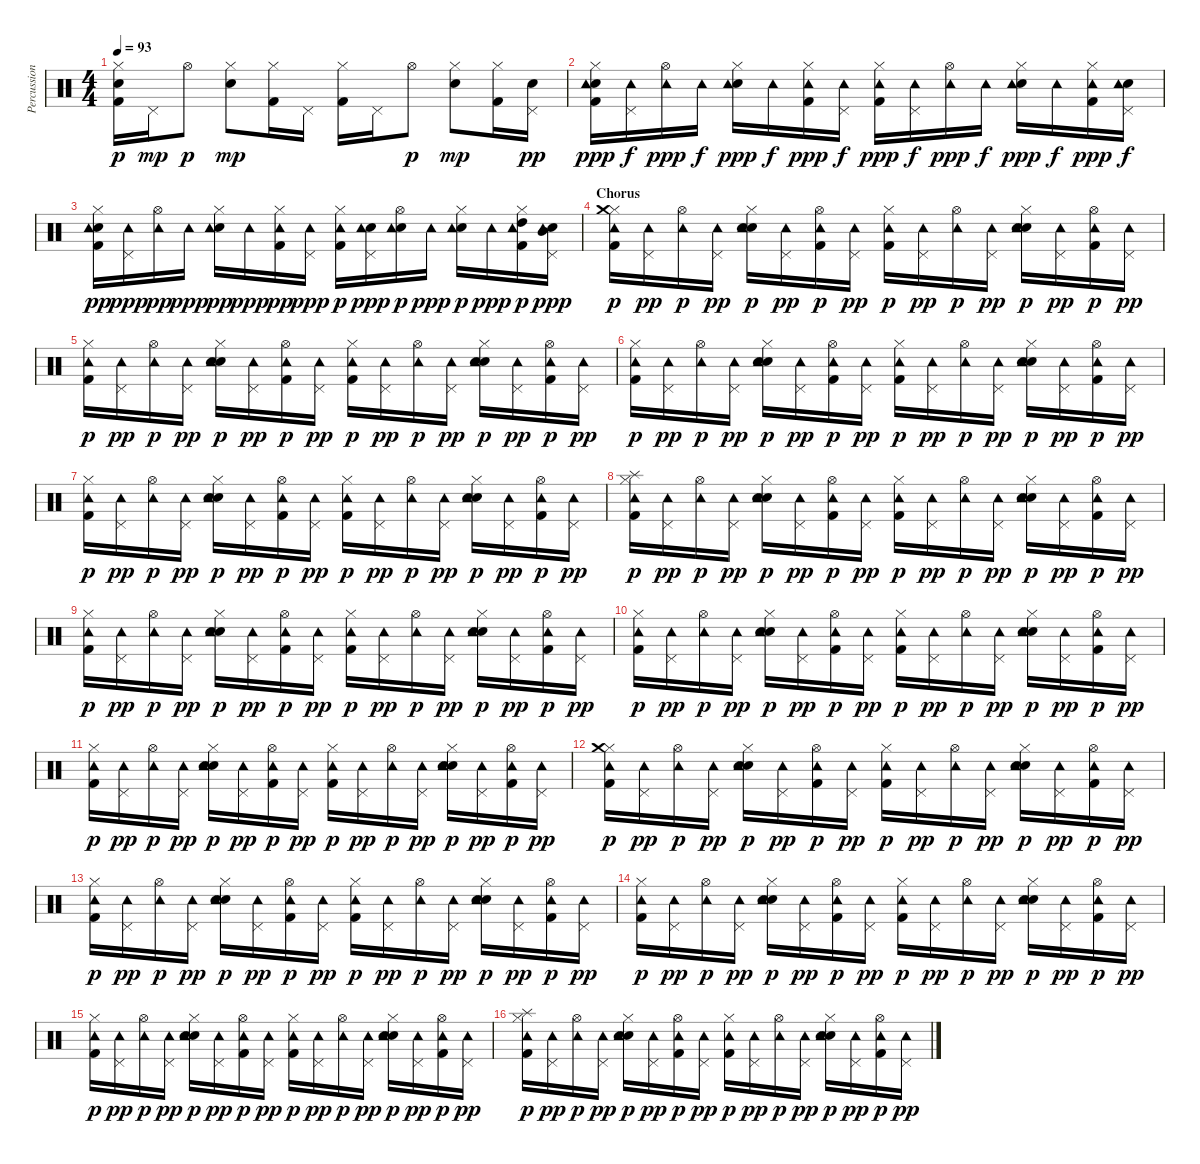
\track ("Percussions" "Percussion") {instrument percussion}
\staff {score}
\articulation defaults
\ts (4 4)
\tempo 93
\clef neutral
\ks c
("Hi-Hat (closed)" "Hand Clap (hit)" "Kick (hit) 2").16{dy p} "Pedal Hi-Hat (hit)".16{dy mp} "Hi-Hat (open)".8{dy p} ("Hi-Hat (closed)" "Electric Snare (hit)").8{dy mp} ("Hi-Hat (closed)" "Kick (hit) 2").16 "Pedal Hi-Hat (hit)".16 ("Hi-Hat (closed)" "Kick (hit) 2").16 "Pedal Hi-Hat (hit)".16 "Hi-Hat (open)".8{dy p} ("Hi-Hat (closed)" "Electric Snare (hit)").8{dy mp} ("Hi-Hat (closed)" "Kick (hit) 2").16 ("Pedal Hi-Hat (hit)" "Hand Clap (hit)").16{dy pp} |
("Hi-Hat (closed)" "Hand Clap (hit)" "Kick (hit) 2" "Tambourine (hit)").16{dy ppp} ("Pedal Hi-Hat (hit)" "Tambourine (hit)").16{dy f} ("Hi-Hat (open)" "Tambourine (hit)").16{dy ppp} "Tambourine (hit)".16{dy f} ("Hi-Hat (closed)" "Electric Snare (hit)" "Tambourine (hit)").16{dy ppp} "Tambourine (hit)".16{dy f} ("Hi-Hat (closed)" "Kick (hit) 2" "Tambourine (hit)").16{dy ppp} ("Pedal Hi-Hat (hit)" "Tambourine (hit)").16{dy f} ("Hi-Hat (closed)" "Kick (hit) 2" "Tambourine (hit)").16{dy ppp} ("Pedal Hi-Hat (hit)" "Tambourine (hit)").16{dy f} ("Hi-Hat (open)" "Tambourine (hit)").16{dy ppp} "Tambourine (hit)".16{dy f} ("Hi-Hat (closed)" "Electric Snare (hit)" "Tambourine (hit)").16{dy ppp} "Tambourine (hit)".16{dy f} ("Hi-Hat (closed)" "Kick (hit) 2" "Tambourine (hit)").16{dy ppp} ("Pedal Hi-Hat (hit)" "Hand Clap (hit)" "Tambourine (hit)").16{dy f} |
("Hi-Hat (closed)" "Hand Clap (hit)" "Kick (hit) 2" "Tambourine (hit)").16{dy pp} ("Pedal Hi-Hat (hit)" "Tambourine (hit)").16{dy ppp} ("Hi-Hat (open)" "Tambourine (hit)").16{dy pp} "Tambourine (hit)".16{dy ppp} ("Hi-Hat (closed)" "Electric Snare (hit)" "Tambourine (hit)").16{dy pp} "Tambourine (hit)".16{dy ppp} ("Hi-Hat (closed)" "Kick (hit) 2" "Tambourine (hit)").16{dy pp} ("Pedal Hi-Hat (hit)" "Tambourine (hit)").16{dy ppp} ("Hi-Hat (closed)" "Kick (hit) 2" "Tambourine (hit)").16{dy p} ("Pedal Hi-Hat (hit)" "Electric Snare (hit)" "Tambourine (hit)").16{dy ppp} ("Hi-Hat (open)" "Electric Snare (hit)" "Tambourine (hit)").16{dy p} "Tambourine (hit)".16{dy ppp} ("Hi-Hat (closed)" "Electric Snare (hit)" "Tambourine (hit)").16{dy p} "Tambourine (hit)".16{dy ppp} ("Hi-Hat (closed)" "High Tom (hit)" "Kick (hit) 2" "Tambourine (hit)").16{dy p} ("Pedal Hi-Hat (hit)" "Mid Tom (hit)" "Hand Clap (hit)" "Tambourine (hit)").16{dy ppp} |
\section ("" "Chorus")
("Hi-Hat (closed)" "Crash medium (hit)" "Kick (hit) 2" "Tambourine (hit)").16{dy p} ("Pedal Hi-Hat (hit)" "Tambourine (hit)").16{dy pp} ("Hi-Hat (open)" "Tambourine (hit)").16{dy p} ("Pedal Hi-Hat (hit)" "Tambourine (hit)").16{dy pp} ("Hi-Hat (closed)" "Electric Snare (hit)" "Hand Clap (hit)" "Tambourine (hit)").16{dy p} ("Pedal Hi-Hat (hit)" "Tambourine (hit)").16{dy pp} ("Hi-Hat (open)" "Kick (hit) 2" "Tambourine (hit)").16{dy p} ("Pedal Hi-Hat (hit)" "Tambourine (hit)").16{dy pp} ("Hi-Hat (closed)" "Kick (hit) 2" "Tambourine (hit)").16{dy p} ("Pedal Hi-Hat (hit)" "Tambourine (hit)").16{dy pp} ("Hi-Hat (open)" "Tambourine (hit)").16{dy p} ("Pedal Hi-Hat (hit)" "Tambourine (hit)").16{dy pp} ("Hi-Hat (closed)" "Electric Snare (hit)" "Hand Clap (hit)" "Tambourine (hit)").16{dy p} ("Pedal Hi-Hat (hit)" "Tambourine (hit)").16{dy pp} ("Hi-Hat (open)" "Kick (hit) 2" "Tambourine (hit)").16{dy p} ("Pedal Hi-Hat (hit)" "Tambourine (hit)").16{dy pp} |
("Hi-Hat (closed)" "Kick (hit) 2" "Tambourine (hit)").16{dy p} ("Pedal Hi-Hat (hit)" "Tambourine (hit)").16{dy pp} ("Hi-Hat (open)" "Tambourine (hit)").16{dy p} ("Pedal Hi-Hat (hit)" "Tambourine (hit)").16{dy pp} ("Hi-Hat (closed)" "Electric Snare (hit)" "Hand Clap (hit)" "Tambourine (hit)").16{dy p} ("Pedal Hi-Hat (hit)" "Tambourine (hit)").16{dy pp} ("Hi-Hat (open)" "Kick (hit) 2" "Tambourine (hit)").16{dy p} ("Pedal Hi-Hat (hit)" "Tambourine (hit)").16{dy pp} ("Hi-Hat (closed)" "Kick (hit) 2" "Tambourine (hit)").16{dy p} ("Pedal Hi-Hat (hit)" "Tambourine (hit)").16{dy pp} ("Hi-Hat (open)" "Tambourine (hit)").16{dy p} ("Pedal Hi-Hat (hit)" "Tambourine (hit)").16{dy pp} ("Hi-Hat (closed)" "Electric Snare (hit)" "Hand Clap (hit)" "Tambourine (hit)").16{dy p} ("Pedal Hi-Hat (hit)" "Tambourine (hit)").16{dy pp} ("Hi-Hat (open)" "Kick (hit) 2" "Tambourine (hit)").16{dy p} ("Pedal Hi-Hat (hit)" "Tambourine (hit)").16{dy pp} |
("Hi-Hat (closed)" "Kick (hit) 2" "Tambourine (hit)").16{dy p} ("Pedal Hi-Hat (hit)" "Tambourine (hit)").16{dy pp} ("Hi-Hat (open)" "Tambourine (hit)").16{dy p} ("Pedal Hi-Hat (hit)" "Tambourine (hit)").16{dy pp} ("Hi-Hat (closed)" "Electric Snare (hit)" "Hand Clap (hit)" "Tambourine (hit)").16{dy p} ("Pedal Hi-Hat (hit)" "Tambourine (hit)").16{dy pp} ("Hi-Hat (open)" "Kick (hit) 2" "Tambourine (hit)").16{dy p} ("Pedal Hi-Hat (hit)" "Tambourine (hit)").16{dy pp} ("Hi-Hat (closed)" "Kick (hit) 2" "Tambourine (hit)").16{dy p} ("Pedal Hi-Hat (hit)" "Tambourine (hit)").16{dy pp} ("Hi-Hat (open)" "Tambourine (hit)").16{dy p} ("Pedal Hi-Hat (hit)" "Tambourine (hit)").16{dy pp} ("Hi-Hat (closed)" "Electric Snare (hit)" "Hand Clap (hit)" "Tambourine (hit)").16{dy p} ("Pedal Hi-Hat (hit)" "Tambourine (hit)").16{dy pp} ("Hi-Hat (open)" "Kick (hit) 2" "Tambourine (hit)").16{dy p} ("Pedal Hi-Hat (hit)" "Tambourine (hit)").16{dy pp} |
("Hi-Hat (closed)" "Kick (hit) 2" "Tambourine (hit)").16{dy p} ("Pedal Hi-Hat (hit)" "Tambourine (hit)").16{dy pp} ("Hi-Hat (open)" "Tambourine (hit)").16{dy p} ("Pedal Hi-Hat (hit)" "Tambourine (hit)").16{dy pp} ("Hi-Hat (closed)" "Electric Snare (hit)" "Hand Clap (hit)" "Tambourine (hit)").16{dy p} ("Pedal Hi-Hat (hit)" "Tambourine (hit)").16{dy pp} ("Hi-Hat (open)" "Kick (hit) 2" "Tambourine (hit)").16{dy p} ("Pedal Hi-Hat (hit)" "Tambourine (hit)").16{dy pp} ("Hi-Hat (closed)" "Kick (hit) 2" "Tambourine (hit)").16{dy p} ("Pedal Hi-Hat (hit)" "Tambourine (hit)").16{dy pp} ("Hi-Hat (open)" "Tambourine (hit)").16{dy p} ("Pedal Hi-Hat (hit)" "Tambourine (hit)").16{dy pp} ("Hi-Hat (closed)" "Electric Snare (hit)" "Hand Clap (hit)" "Tambourine (hit)").16{dy p} ("Pedal Hi-Hat (hit)" "Tambourine (hit)").16{dy pp} ("Hi-Hat (open)" "Kick (hit) 2" "Tambourine (hit)").16{dy p} ("Pedal Hi-Hat (hit)" "Tambourine (hit)").16{dy pp} |
("Hi-Hat (closed)" "Splash (hit)" "Kick (hit) 2" "Tambourine (hit)").16{dy p} ("Pedal Hi-Hat (hit)" "Tambourine (hit)").16{dy pp} ("Hi-Hat (open)" "Tambourine (hit)").16{dy p} ("Pedal Hi-Hat (hit)" "Tambourine (hit)").16{dy pp} ("Hi-Hat (closed)" "Electric Snare (hit)" "Hand Clap (hit)" "Tambourine (hit)").16{dy p} ("Pedal Hi-Hat (hit)" "Tambourine (hit)").16{dy pp} ("Hi-Hat (open)" "Kick (hit) 2" "Tambourine (hit)").16{dy p} ("Pedal Hi-Hat (hit)" "Tambourine (hit)").16{dy pp} ("Hi-Hat (closed)" "Kick (hit) 2" "Tambourine (hit)").16{dy p} ("Pedal Hi-Hat (hit)" "Tambourine (hit)").16{dy pp} ("Hi-Hat (open)" "Tambourine (hit)").16{dy p} ("Pedal Hi-Hat (hit)" "Tambourine (hit)").16{dy pp} ("Hi-Hat (closed)" "Electric Snare (hit)" "Hand Clap (hit)" "Tambourine (hit)").16{dy p} ("Pedal Hi-Hat (hit)" "Tambourine (hit)").16{dy pp} ("Hi-Hat (open)" "Kick (hit) 2" "Tambourine (hit)").16{dy p} ("Pedal Hi-Hat (hit)" "Tambourine (hit)").16{dy pp} |
("Hi-Hat (closed)" "Kick (hit) 2" "Tambourine (hit)").16{dy p} ("Pedal Hi-Hat (hit)" "Tambourine (hit)").16{dy pp} ("Hi-Hat (open)" "Tambourine (hit)").16{dy p} ("Pedal Hi-Hat (hit)" "Tambourine (hit)").16{dy pp} ("Hi-Hat (closed)" "Electric Snare (hit)" "Hand Clap (hit)" "Tambourine (hit)").16{dy p} ("Pedal Hi-Hat (hit)" "Tambourine (hit)").16{dy pp} ("Hi-Hat (open)" "Kick (hit) 2" "Tambourine (hit)").16{dy p} ("Pedal Hi-Hat (hit)" "Tambourine (hit)").16{dy pp} ("Hi-Hat (closed)" "Kick (hit) 2" "Tambourine (hit)").16{dy p} ("Pedal Hi-Hat (hit)" "Tambourine (hit)").16{dy pp} ("Hi-Hat (open)" "Tambourine (hit)").16{dy p} ("Pedal Hi-Hat (hit)" "Tambourine (hit)").16{dy pp} ("Hi-Hat (closed)" "Electric Snare (hit)" "Hand Clap (hit)" "Tambourine (hit)").16{dy p} ("Pedal Hi-Hat (hit)" "Tambourine (hit)").16{dy pp} ("Hi-Hat (open)" "Kick (hit) 2" "Tambourine (hit)").16{dy p} ("Pedal Hi-Hat (hit)" "Tambourine (hit)").16{dy pp} |
("Hi-Hat (closed)" "Kick (hit) 2" "Tambourine (hit)").16{dy p} ("Pedal Hi-Hat (hit)" "Tambourine (hit)").16{dy pp} ("Hi-Hat (open)" "Tambourine (hit)").16{dy p} ("Pedal Hi-Hat (hit)" "Tambourine (hit)").16{dy pp} ("Hi-Hat (closed)" "Electric Snare (hit)" "Hand Clap (hit)" "Tambourine (hit)").16{dy p} ("Pedal Hi-Hat (hit)" "Tambourine (hit)").16{dy pp} ("Hi-Hat (open)" "Kick (hit) 2" "Tambourine (hit)").16{dy p} ("Pedal Hi-Hat (hit)" "Tambourine (hit)").16{dy pp} ("Hi-Hat (closed)" "Kick (hit) 2" "Tambourine (hit)").16{dy p} ("Pedal Hi-Hat (hit)" "Tambourine (hit)").16{dy pp} ("Hi-Hat (open)" "Tambourine (hit)").16{dy p} ("Pedal Hi-Hat (hit)" "Tambourine (hit)").16{dy pp} ("Hi-Hat (closed)" "Electric Snare (hit)" "Hand Clap (hit)" "Tambourine (hit)").16{dy p} ("Pedal Hi-Hat (hit)" "Tambourine (hit)").16{dy pp} ("Hi-Hat (open)" "Kick (hit) 2" "Tambourine (hit)").16{dy p} ("Pedal Hi-Hat (hit)" "Tambourine (hit)").16{dy pp} |
("Hi-Hat (closed)" "Kick (hit) 2" "Tambourine (hit)").16{dy p} ("Pedal Hi-Hat (hit)" "Tambourine (hit)").16{dy pp} ("Hi-Hat (open)" "Tambourine (hit)").16{dy p} ("Pedal Hi-Hat (hit)" "Tambourine (hit)").16{dy pp} ("Hi-Hat (closed)" "Electric Snare (hit)" "Hand Clap (hit)" "Tambourine (hit)").16{dy p} ("Pedal Hi-Hat (hit)" "Tambourine (hit)").16{dy pp} ("Hi-Hat (open)" "Kick (hit) 2" "Tambourine (hit)").16{dy p} ("Pedal Hi-Hat (hit)" "Tambourine (hit)").16{dy pp} ("Hi-Hat (closed)" "Kick (hit) 2" "Tambourine (hit)").16{dy p} ("Pedal Hi-Hat (hit)" "Tambourine (hit)").16{dy pp} ("Hi-Hat (open)" "Tambourine (hit)").16{dy p} ("Pedal Hi-Hat (hit)" "Tambourine (hit)").16{dy pp} ("Hi-Hat (closed)" "Electric Snare (hit)" "Hand Clap (hit)" "Tambourine (hit)").16{dy p} ("Pedal Hi-Hat (hit)" "Tambourine (hit)").16{dy pp} ("Hi-Hat (open)" "Kick (hit) 2" "Tambourine (hit)").16{dy p} ("Pedal Hi-Hat (hit)" "Tambourine (hit)").16{dy pp} |
("Hi-Hat (closed)" "Crash medium (hit)" "Kick (hit) 2" "Tambourine (hit)").16{dy p} ("Pedal Hi-Hat (hit)" "Tambourine (hit)").16{dy pp} ("Hi-Hat (open)" "Tambourine (hit)").16{dy p} ("Pedal Hi-Hat (hit)" "Tambourine (hit)").16{dy pp} ("Hi-Hat (closed)" "Electric Snare (hit)" "Hand Clap (hit)" "Tambourine (hit)").16{dy p} ("Pedal Hi-Hat (hit)" "Tambourine (hit)").16{dy pp} ("Hi-Hat (open)" "Kick (hit) 2" "Tambourine (hit)").16{dy p} ("Pedal Hi-Hat (hit)" "Tambourine (hit)").16{dy pp} ("Hi-Hat (closed)" "Kick (hit) 2" "Tambourine (hit)").16{dy p} ("Pedal Hi-Hat (hit)" "Tambourine (hit)").16{dy pp} ("Hi-Hat (open)" "Tambourine (hit)").16{dy p} ("Pedal Hi-Hat (hit)" "Tambourine (hit)").16{dy pp} ("Hi-Hat (closed)" "Electric Snare (hit)" "Hand Clap (hit)" "Tambourine (hit)").16{dy p} ("Pedal Hi-Hat (hit)" "Tambourine (hit)").16{dy pp} ("Hi-Hat (open)" "Kick (hit) 2" "Tambourine (hit)").16{dy p} ("Pedal Hi-Hat (hit)" "Tambourine (hit)").16{dy pp} |
("Hi-Hat (closed)" "Kick (hit) 2" "Tambourine (hit)").16{dy p} ("Pedal Hi-Hat (hit)" "Tambourine (hit)").16{dy pp} ("Hi-Hat (open)" "Tambourine (hit)").16{dy p} ("Pedal Hi-Hat (hit)" "Tambourine (hit)").16{dy pp} ("Hi-Hat (closed)" "Electric Snare (hit)" "Hand Clap (hit)" "Tambourine (hit)").16{dy p} ("Pedal Hi-Hat (hit)" "Tambourine (hit)").16{dy pp} ("Hi-Hat (open)" "Kick (hit) 2" "Tambourine (hit)").16{dy p} ("Pedal Hi-Hat (hit)" "Tambourine (hit)").16{dy pp} ("Hi-Hat (closed)" "Kick (hit) 2" "Tambourine (hit)").16{dy p} ("Pedal Hi-Hat (hit)" "Tambourine (hit)").16{dy pp} ("Hi-Hat (open)" "Tambourine (hit)").16{dy p} ("Pedal Hi-Hat (hit)" "Tambourine (hit)").16{dy pp} ("Hi-Hat (closed)" "Electric Snare (hit)" "Hand Clap (hit)" "Tambourine (hit)").16{dy p} ("Pedal Hi-Hat (hit)" "Tambourine (hit)").16{dy pp} ("Hi-Hat (open)" "Kick (hit) 2" "Tambourine (hit)").16{dy p} ("Pedal Hi-Hat (hit)" "Tambourine (hit)").16{dy pp} |
("Hi-Hat (closed)" "Kick (hit) 2" "Tambourine (hit)").16{dy p} ("Pedal Hi-Hat (hit)" "Tambourine (hit)").16{dy pp} ("Hi-Hat (open)" "Tambourine (hit)").16{dy p} ("Pedal Hi-Hat (hit)" "Tambourine (hit)").16{dy pp} ("Hi-Hat (closed)" "Electric Snare (hit)" "Hand Clap (hit)" "Tambourine (hit)").16{dy p} ("Pedal Hi-Hat (hit)" "Tambourine (hit)").16{dy pp} ("Hi-Hat (open)" "Kick (hit) 2" "Tambourine (hit)").16{dy p} ("Pedal Hi-Hat (hit)" "Tambourine (hit)").16{dy pp} ("Hi-Hat (closed)" "Kick (hit) 2" "Tambourine (hit)").16{dy p} ("Pedal Hi-Hat (hit)" "Tambourine (hit)").16{dy pp} ("Hi-Hat (open)" "Tambourine (hit)").16{dy p} ("Pedal Hi-Hat (hit)" "Tambourine (hit)").16{dy pp} ("Hi-Hat (closed)" "Electric Snare (hit)" "Hand Clap (hit)" "Tambourine (hit)").16{dy p} ("Pedal Hi-Hat (hit)" "Tambourine (hit)").16{dy pp} ("Hi-Hat (open)" "Kick (hit) 2" "Tambourine (hit)").16{dy p} ("Pedal Hi-Hat (hit)" "Tambourine (hit)").16{dy pp} |
("Hi-Hat (closed)" "Kick (hit) 2" "Tambourine (hit)").16{dy p} ("Pedal Hi-Hat (hit)" "Tambourine (hit)").16{dy pp} ("Hi-Hat (open)" "Tambourine (hit)").16{dy p} ("Pedal Hi-Hat (hit)" "Tambourine (hit)").16{dy pp} ("Hi-Hat (closed)" "Electric Snare (hit)" "Hand Clap (hit)" "Tambourine (hit)").16{dy p} ("Pedal Hi-Hat (hit)" "Tambourine (hit)").16{dy pp} ("Hi-Hat (open)" "Kick (hit) 2" "Tambourine (hit)").16{dy p} ("Pedal Hi-Hat (hit)" "Tambourine (hit)").16{dy pp} ("Hi-Hat (closed)" "Kick (hit) 2" "Tambourine (hit)").16{dy p} ("Pedal Hi-Hat (hit)" "Tambourine (hit)").16{dy pp} ("Hi-Hat (open)" "Tambourine (hit)").16{dy p} ("Pedal Hi-Hat (hit)" "Tambourine (hit)").16{dy pp} ("Hi-Hat (closed)" "Electric Snare (hit)" "Hand Clap (hit)" "Tambourine (hit)").16{dy p} ("Pedal Hi-Hat (hit)" "Tambourine (hit)").16{dy pp} ("Hi-Hat (open)" "Kick (hit) 2" "Tambourine (hit)").16{dy p} ("Pedal Hi-Hat (hit)" "Tambourine (hit)").16{dy pp} |
("Hi-Hat (closed)" "Splash (hit)" "Kick (hit) 2" "Tambourine (hit)").16{dy p} ("Pedal Hi-Hat (hit)" "Tambourine (hit)").16{dy pp} ("Hi-Hat (open)" "Tambourine (hit)").16{dy p} ("Pedal Hi-Hat (hit)" "Tambourine (hit)").16{dy pp} ("Hi-Hat (closed)" "Electric Snare (hit)" "Hand Clap (hit)" "Tambourine (hit)").16{dy p} ("Pedal Hi-Hat (hit)" "Tambourine (hit)").16{dy pp} ("Hi-Hat (open)" "Kick (hit) 2" "Tambourine (hit)").16{dy p} ("Pedal Hi-Hat (hit)" "Tambourine (hit)").16{dy pp} ("Hi-Hat (closed)" "Kick (hit) 2" "Tambourine (hit)").16{dy p} ("Pedal Hi-Hat (hit)" "Tambourine (hit)").16{dy pp} ("Hi-Hat (open)" "Tambourine (hit)").16{dy p} ("Pedal Hi-Hat (hit)" "Tambourine (hit)").16{dy pp} ("Hi-Hat (closed)" "Electric Snare (hit)" "Hand Clap (hit)" "Tambourine (hit)").16{dy p} ("Pedal Hi-Hat (hit)" "Tambourine (hit)").16{dy pp} ("Hi-Hat (open)" "Kick (hit) 2" "Tambourine (hit)").16{dy p} ("Pedal Hi-Hat (hit)" "Tambourine (hit)").16{dy pp}
